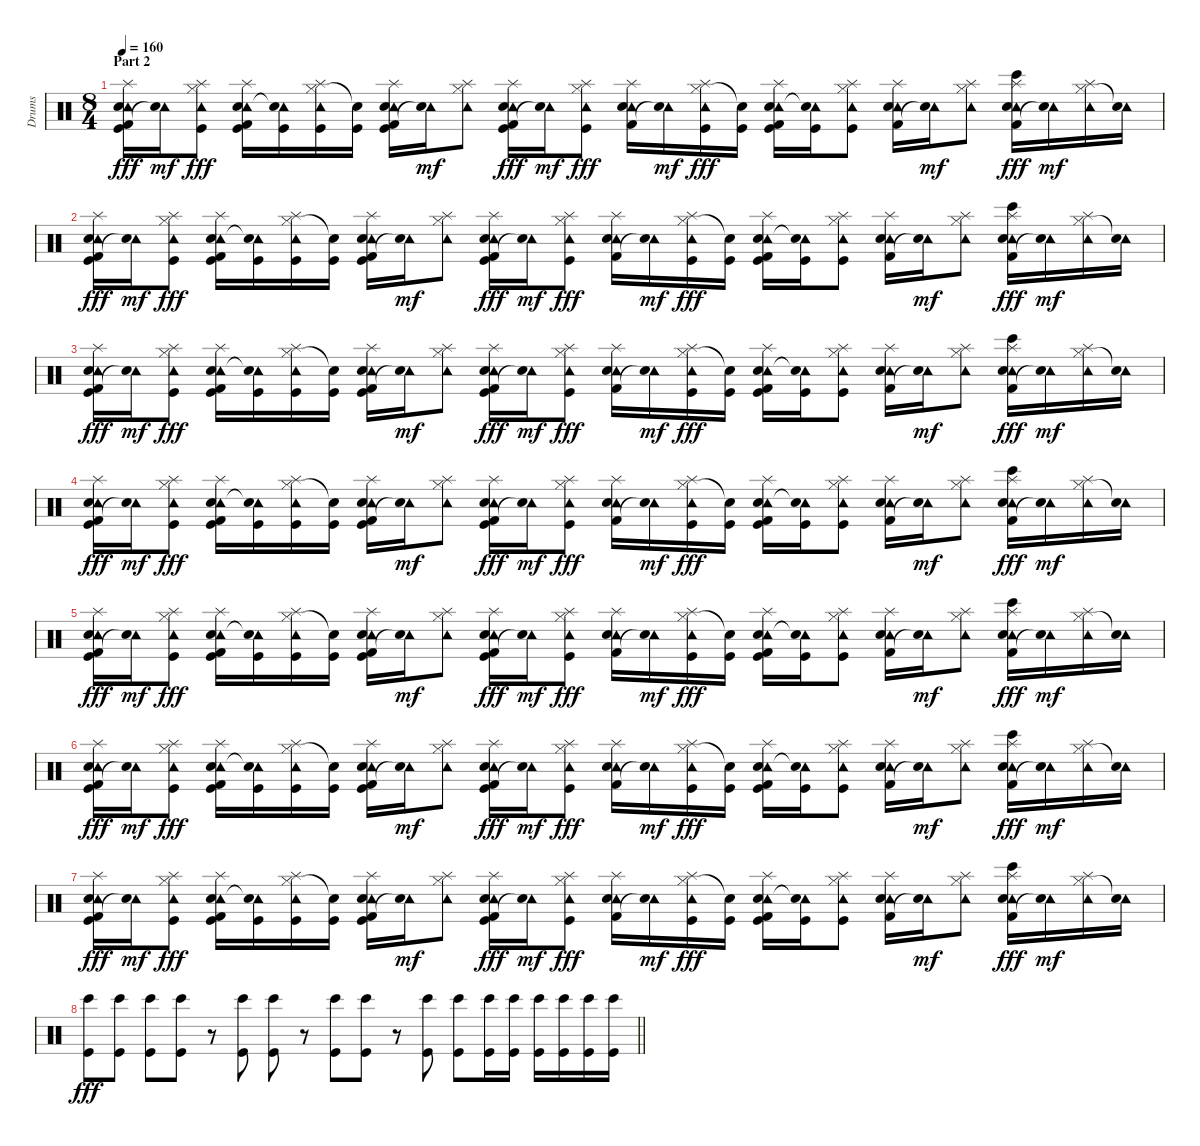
\track ("Drums" "Drums") {instrument percussion}
\staff {score}
\articulation defaults
\ts (8 4)
\section ("" "Part 2")
\tempo 160
\clef neutral
\ks c
("Tambourine (hit)" "Kick (hit) 2" "Hand Clap (hit)" "Splash (hit)" "Kick (hit)").16{dy fff} ("Tambourine (hit)" "Snare (hit)"{t}).16{dy mf} ("Tambourine (hit)" "Hi-Hat (closed)" "Splash (hit)" "Kick (hit)").8{dy fff} ("Tambourine (hit)" "Kick (hit) 2" "Hand Clap (hit)" "Kick (hit)" "Splash (hit)").16 ("Tambourine (hit)" "Kick (hit)" "Snare (hit)"{t}).16 ("Tambourine (hit)" "Hi-Hat (closed)" "Splash (hit)" "Kick (hit)").16 ("Kick (hit)" "Snare (hit)"{t}).16 ("Tambourine (hit)" "Kick (hit) 2" "Hand Clap (hit)" "Kick (hit)" "Splash (hit)").16 ("Tambourine (hit)" "Snare (hit)"{t}).16{dy mf} ("Tambourine (hit)" "Hi-Hat (closed)" "Splash (hit)").8 ("Tambourine (hit)" "Kick (hit) 2" "Hand Clap (hit)" "Kick (hit)" "Splash (hit)").16{dy fff} ("Tambourine (hit)" "Snare (hit)"{t}).16{dy mf} ("Tambourine (hit)" "Hi-Hat (closed)" "Splash (hit)" "Kick (hit)").8{dy fff} ("Tambourine (hit)" "Kick (hit) 2" "Hand Clap (hit)" "Splash (hit)").16 ("Tambourine (hit)" "Snare (hit)"{t}).16{dy mf} ("Tambourine (hit)" "Hi-Hat (closed)" "Splash (hit)" "Kick (hit)").16{dy fff} ("Kick (hit)" "Snare (hit)"{t}).16 ("Tambourine (hit)" "Kick (hit) 2" "Hand Clap (hit)" "Kick (hit)" "Splash (hit)").16 ("Tambourine (hit)" "Kick (hit)" "Snare (hit)"{t}).16 ("Tambourine (hit)" "Hi-Hat (closed)" "Splash (hit)" "Kick (hit)").8 ("Tambourine (hit)" "Kick (hit) 2" "Hand Clap (hit)" "Splash (hit)").16 ("Tambourine (hit)" "Snare (hit)"{t}).16{dy mf} ("Tambourine (hit)" "Hi-Hat (closed)" "Splash (hit)").8 ("Tambourine (hit)" "Kick (hit) 2" "Hand Clap (hit)" "Bongo High (hit)" "Splash (hit)").16{dy fff} ("Tambourine (hit)" "Snare (hit)"{t}).16{dy mf} ("Tambourine (hit)" "Hi-Hat (closed)" "Splash (hit)").16 ("Tambourine (hit)" "Snare (hit)"{t}).16 |
("Tambourine (hit)" "Kick (hit) 2" "Hand Clap (hit)" "Splash (hit)" "Kick (hit)").16{dy fff} ("Tambourine (hit)" "Snare (hit)"{t}).16{dy mf} ("Tambourine (hit)" "Hi-Hat (closed)" "Splash (hit)" "Kick (hit)").8{dy fff} ("Tambourine (hit)" "Kick (hit) 2" "Hand Clap (hit)" "Kick (hit)" "Splash (hit)").16 ("Tambourine (hit)" "Kick (hit)" "Snare (hit)"{t}).16 ("Tambourine (hit)" "Hi-Hat (closed)" "Splash (hit)" "Kick (hit)").16 ("Kick (hit)" "Snare (hit)"{t}).16 ("Tambourine (hit)" "Kick (hit) 2" "Hand Clap (hit)" "Kick (hit)" "Splash (hit)").16 ("Tambourine (hit)" "Snare (hit)"{t}).16{dy mf} ("Tambourine (hit)" "Hi-Hat (closed)" "Splash (hit)").8 ("Tambourine (hit)" "Kick (hit) 2" "Hand Clap (hit)" "Kick (hit)" "Splash (hit)").16{dy fff} ("Tambourine (hit)" "Snare (hit)"{t}).16{dy mf} ("Tambourine (hit)" "Hi-Hat (closed)" "Splash (hit)" "Kick (hit)").8{dy fff} ("Tambourine (hit)" "Kick (hit) 2" "Hand Clap (hit)" "Splash (hit)").16 ("Tambourine (hit)" "Snare (hit)"{t}).16{dy mf} ("Tambourine (hit)" "Hi-Hat (closed)" "Splash (hit)" "Kick (hit)").16{dy fff} ("Kick (hit)" "Snare (hit)"{t}).16 ("Tambourine (hit)" "Kick (hit) 2" "Hand Clap (hit)" "Kick (hit)" "Splash (hit)").16 ("Tambourine (hit)" "Kick (hit)" "Snare (hit)"{t}).16 ("Tambourine (hit)" "Hi-Hat (closed)" "Splash (hit)" "Kick (hit)").8 ("Tambourine (hit)" "Kick (hit) 2" "Hand Clap (hit)" "Splash (hit)").16 ("Tambourine (hit)" "Snare (hit)"{t}).16{dy mf} ("Tambourine (hit)" "Hi-Hat (closed)" "Splash (hit)").8 ("Tambourine (hit)" "Kick (hit) 2" "Hand Clap (hit)" "Bongo High (hit)" "Splash (hit)").16{dy fff} ("Tambourine (hit)" "Snare (hit)"{t}).16{dy mf} ("Tambourine (hit)" "Hi-Hat (closed)" "Splash (hit)").16 ("Tambourine (hit)" "Snare (hit)"{t}).16 |
("Tambourine (hit)" "Kick (hit) 2" "Hand Clap (hit)" "Splash (hit)" "Kick (hit)").16{dy fff} ("Tambourine (hit)" "Snare (hit)"{t}).16{dy mf} ("Tambourine (hit)" "Hi-Hat (closed)" "Splash (hit)" "Kick (hit)").8{dy fff} ("Tambourine (hit)" "Kick (hit) 2" "Hand Clap (hit)" "Kick (hit)" "Splash (hit)").16 ("Tambourine (hit)" "Kick (hit)" "Snare (hit)"{t}).16 ("Tambourine (hit)" "Hi-Hat (closed)" "Splash (hit)" "Kick (hit)").16 ("Kick (hit)" "Snare (hit)"{t}).16 ("Tambourine (hit)" "Kick (hit) 2" "Hand Clap (hit)" "Kick (hit)" "Splash (hit)").16 ("Tambourine (hit)" "Snare (hit)"{t}).16{dy mf} ("Tambourine (hit)" "Hi-Hat (closed)" "Splash (hit)").8 ("Tambourine (hit)" "Kick (hit) 2" "Hand Clap (hit)" "Kick (hit)" "Splash (hit)").16{dy fff} ("Tambourine (hit)" "Snare (hit)"{t}).16{dy mf} ("Tambourine (hit)" "Hi-Hat (closed)" "Splash (hit)" "Kick (hit)").8{dy fff} ("Tambourine (hit)" "Kick (hit) 2" "Hand Clap (hit)" "Splash (hit)").16 ("Tambourine (hit)" "Snare (hit)"{t}).16{dy mf} ("Tambourine (hit)" "Hi-Hat (closed)" "Splash (hit)" "Kick (hit)").16{dy fff} ("Kick (hit)" "Snare (hit)"{t}).16 ("Tambourine (hit)" "Kick (hit) 2" "Hand Clap (hit)" "Kick (hit)" "Splash (hit)").16 ("Tambourine (hit)" "Kick (hit)" "Snare (hit)"{t}).16 ("Tambourine (hit)" "Hi-Hat (closed)" "Splash (hit)" "Kick (hit)").8 ("Tambourine (hit)" "Kick (hit) 2" "Hand Clap (hit)" "Splash (hit)").16 ("Tambourine (hit)" "Snare (hit)"{t}).16{dy mf} ("Tambourine (hit)" "Hi-Hat (closed)" "Splash (hit)").8 ("Tambourine (hit)" "Kick (hit) 2" "Hand Clap (hit)" "Bongo High (hit)" "Splash (hit)").16{dy fff} ("Tambourine (hit)" "Snare (hit)"{t}).16{dy mf} ("Tambourine (hit)" "Hi-Hat (closed)" "Splash (hit)").16 ("Tambourine (hit)" "Snare (hit)"{t}).16 |
("Tambourine (hit)" "Kick (hit) 2" "Hand Clap (hit)" "Splash (hit)" "Kick (hit)").16{dy fff} ("Tambourine (hit)" "Snare (hit)"{t}).16{dy mf} ("Tambourine (hit)" "Hi-Hat (closed)" "Splash (hit)" "Kick (hit)").8{dy fff} ("Tambourine (hit)" "Kick (hit) 2" "Hand Clap (hit)" "Kick (hit)" "Splash (hit)").16 ("Tambourine (hit)" "Kick (hit)" "Snare (hit)"{t}).16 ("Tambourine (hit)" "Hi-Hat (closed)" "Splash (hit)" "Kick (hit)").16 ("Kick (hit)" "Snare (hit)"{t}).16 ("Tambourine (hit)" "Kick (hit) 2" "Hand Clap (hit)" "Kick (hit)" "Splash (hit)").16 ("Tambourine (hit)" "Snare (hit)"{t}).16{dy mf} ("Tambourine (hit)" "Hi-Hat (closed)" "Splash (hit)").8 ("Tambourine (hit)" "Kick (hit) 2" "Hand Clap (hit)" "Kick (hit)" "Splash (hit)").16{dy fff} ("Tambourine (hit)" "Snare (hit)"{t}).16{dy mf} ("Tambourine (hit)" "Hi-Hat (closed)" "Splash (hit)" "Kick (hit)").8{dy fff} ("Tambourine (hit)" "Kick (hit) 2" "Hand Clap (hit)" "Splash (hit)").16 ("Tambourine (hit)" "Snare (hit)"{t}).16{dy mf} ("Tambourine (hit)" "Hi-Hat (closed)" "Splash (hit)" "Kick (hit)").16{dy fff} ("Kick (hit)" "Snare (hit)"{t}).16 ("Tambourine (hit)" "Kick (hit) 2" "Hand Clap (hit)" "Kick (hit)" "Splash (hit)").16 ("Tambourine (hit)" "Kick (hit)" "Snare (hit)"{t}).16 ("Tambourine (hit)" "Hi-Hat (closed)" "Splash (hit)" "Kick (hit)").8 ("Tambourine (hit)" "Kick (hit) 2" "Hand Clap (hit)" "Splash (hit)").16 ("Tambourine (hit)" "Snare (hit)"{t}).16{dy mf} ("Tambourine (hit)" "Hi-Hat (closed)" "Splash (hit)").8 ("Tambourine (hit)" "Kick (hit) 2" "Hand Clap (hit)" "Bongo High (hit)" "Splash (hit)").16{dy fff} ("Tambourine (hit)" "Snare (hit)"{t}).16{dy mf} ("Tambourine (hit)" "Hi-Hat (closed)" "Splash (hit)").16 ("Tambourine (hit)" "Snare (hit)"{t}).16 |
("Tambourine (hit)" "Kick (hit) 2" "Hand Clap (hit)" "Splash (hit)" "Kick (hit)").16{dy fff} ("Tambourine (hit)" "Snare (hit)"{t}).16{dy mf} ("Tambourine (hit)" "Hi-Hat (closed)" "Splash (hit)" "Kick (hit)").8{dy fff} ("Tambourine (hit)" "Kick (hit) 2" "Hand Clap (hit)" "Kick (hit)" "Splash (hit)").16 ("Tambourine (hit)" "Kick (hit)" "Snare (hit)"{t}).16 ("Tambourine (hit)" "Hi-Hat (closed)" "Splash (hit)" "Kick (hit)").16 ("Kick (hit)" "Snare (hit)"{t}).16 ("Tambourine (hit)" "Kick (hit) 2" "Hand Clap (hit)" "Kick (hit)" "Splash (hit)").16 ("Tambourine (hit)" "Snare (hit)"{t}).16{dy mf} ("Tambourine (hit)" "Hi-Hat (closed)" "Splash (hit)").8 ("Tambourine (hit)" "Kick (hit) 2" "Hand Clap (hit)" "Kick (hit)" "Splash (hit)").16{dy fff} ("Tambourine (hit)" "Snare (hit)"{t}).16{dy mf} ("Tambourine (hit)" "Hi-Hat (closed)" "Splash (hit)" "Kick (hit)").8{dy fff} ("Tambourine (hit)" "Kick (hit) 2" "Hand Clap (hit)" "Splash (hit)").16 ("Tambourine (hit)" "Snare (hit)"{t}).16{dy mf} ("Tambourine (hit)" "Hi-Hat (closed)" "Splash (hit)" "Kick (hit)").16{dy fff} ("Kick (hit)" "Snare (hit)"{t}).16 ("Tambourine (hit)" "Kick (hit) 2" "Hand Clap (hit)" "Kick (hit)" "Splash (hit)").16 ("Tambourine (hit)" "Kick (hit)" "Snare (hit)"{t}).16 ("Tambourine (hit)" "Hi-Hat (closed)" "Splash (hit)" "Kick (hit)").8 ("Tambourine (hit)" "Kick (hit) 2" "Hand Clap (hit)" "Splash (hit)").16 ("Tambourine (hit)" "Snare (hit)"{t}).16{dy mf} ("Tambourine (hit)" "Hi-Hat (closed)" "Splash (hit)").8 ("Tambourine (hit)" "Kick (hit) 2" "Hand Clap (hit)" "Bongo High (hit)" "Splash (hit)").16{dy fff} ("Tambourine (hit)" "Snare (hit)"{t}).16{dy mf} ("Tambourine (hit)" "Hi-Hat (closed)" "Splash (hit)").16 ("Tambourine (hit)" "Snare (hit)"{t}).16 |
("Tambourine (hit)" "Kick (hit) 2" "Hand Clap (hit)" "Splash (hit)" "Kick (hit)").16{dy fff} ("Tambourine (hit)" "Snare (hit)"{t}).16{dy mf} ("Tambourine (hit)" "Hi-Hat (closed)" "Splash (hit)" "Kick (hit)").8{dy fff} ("Tambourine (hit)" "Kick (hit) 2" "Hand Clap (hit)" "Kick (hit)" "Splash (hit)").16 ("Tambourine (hit)" "Kick (hit)" "Snare (hit)"{t}).16 ("Tambourine (hit)" "Hi-Hat (closed)" "Splash (hit)" "Kick (hit)").16 ("Kick (hit)" "Snare (hit)"{t}).16 ("Tambourine (hit)" "Kick (hit) 2" "Hand Clap (hit)" "Kick (hit)" "Splash (hit)").16 ("Tambourine (hit)" "Snare (hit)"{t}).16{dy mf} ("Tambourine (hit)" "Hi-Hat (closed)" "Splash (hit)").8 ("Tambourine (hit)" "Kick (hit) 2" "Hand Clap (hit)" "Kick (hit)" "Splash (hit)").16{dy fff} ("Tambourine (hit)" "Snare (hit)"{t}).16{dy mf} ("Tambourine (hit)" "Hi-Hat (closed)" "Splash (hit)" "Kick (hit)").8{dy fff} ("Tambourine (hit)" "Kick (hit) 2" "Hand Clap (hit)" "Splash (hit)").16 ("Tambourine (hit)" "Snare (hit)"{t}).16{dy mf} ("Tambourine (hit)" "Hi-Hat (closed)" "Splash (hit)" "Kick (hit)").16{dy fff} ("Kick (hit)" "Snare (hit)"{t}).16 ("Tambourine (hit)" "Kick (hit) 2" "Hand Clap (hit)" "Kick (hit)" "Splash (hit)").16 ("Tambourine (hit)" "Kick (hit)" "Snare (hit)"{t}).16 ("Tambourine (hit)" "Hi-Hat (closed)" "Splash (hit)" "Kick (hit)").8 ("Tambourine (hit)" "Kick (hit) 2" "Hand Clap (hit)" "Splash (hit)").16 ("Tambourine (hit)" "Snare (hit)"{t}).16{dy mf} ("Tambourine (hit)" "Hi-Hat (closed)" "Splash (hit)").8 ("Tambourine (hit)" "Kick (hit) 2" "Hand Clap (hit)" "Bongo High (hit)" "Splash (hit)").16{dy fff} ("Tambourine (hit)" "Snare (hit)"{t}).16{dy mf} ("Tambourine (hit)" "Hi-Hat (closed)" "Splash (hit)").16 ("Tambourine (hit)" "Snare (hit)"{t}).16 |
("Tambourine (hit)" "Kick (hit) 2" "Hand Clap (hit)" "Splash (hit)" "Kick (hit)").16{dy fff} ("Tambourine (hit)" "Snare (hit)"{t}).16{dy mf} ("Tambourine (hit)" "Hi-Hat (closed)" "Splash (hit)" "Kick (hit)").8{dy fff} ("Tambourine (hit)" "Kick (hit) 2" "Hand Clap (hit)" "Kick (hit)" "Splash (hit)").16 ("Tambourine (hit)" "Kick (hit)" "Snare (hit)"{t}).16 ("Tambourine (hit)" "Hi-Hat (closed)" "Splash (hit)" "Kick (hit)").16 ("Kick (hit)" "Snare (hit)"{t}).16 ("Tambourine (hit)" "Kick (hit) 2" "Hand Clap (hit)" "Kick (hit)" "Splash (hit)").16 ("Tambourine (hit)" "Snare (hit)"{t}).16{dy mf} ("Tambourine (hit)" "Hi-Hat (closed)" "Splash (hit)").8 ("Tambourine (hit)" "Kick (hit) 2" "Hand Clap (hit)" "Kick (hit)" "Splash (hit)").16{dy fff} ("Tambourine (hit)" "Snare (hit)"{t}).16{dy mf} ("Tambourine (hit)" "Hi-Hat (closed)" "Splash (hit)" "Kick (hit)").8{dy fff} ("Tambourine (hit)" "Kick (hit) 2" "Hand Clap (hit)" "Splash (hit)").16 ("Tambourine (hit)" "Snare (hit)"{t}).16{dy mf} ("Tambourine (hit)" "Hi-Hat (closed)" "Splash (hit)" "Kick (hit)").16{dy fff} ("Kick (hit)" "Snare (hit)"{t}).16 ("Tambourine (hit)" "Kick (hit) 2" "Hand Clap (hit)" "Kick (hit)" "Splash (hit)").16 ("Tambourine (hit)" "Kick (hit)" "Snare (hit)"{t}).16 ("Tambourine (hit)" "Hi-Hat (closed)" "Splash (hit)" "Kick (hit)").8 ("Tambourine (hit)" "Kick (hit) 2" "Hand Clap (hit)" "Splash (hit)").16 ("Tambourine (hit)" "Snare (hit)"{t}).16{dy mf} ("Tambourine (hit)" "Hi-Hat (closed)" "Splash (hit)").8 ("Tambourine (hit)" "Kick (hit) 2" "Hand Clap (hit)" "Bongo High (hit)" "Splash (hit)").16{dy fff} ("Tambourine (hit)" "Snare (hit)"{t}).16{dy mf} ("Tambourine (hit)" "Hi-Hat (closed)" "Splash (hit)").16 ("Tambourine (hit)" "Snare (hit)"{t}).16 |
\barLineRight lightlight
("Kick (hit)" "Bongo High (hit)").8{dy fff} ("Kick (hit)" "Bongo High (hit)").8 ("Kick (hit)" "Bongo High (hit)").8 ("Kick (hit)" "Bongo High (hit)").8 r.8 ("Kick (hit)" "Bongo High (hit)").8 ("Kick (hit)" "Bongo High (hit)").8 r.8 ("Kick (hit)" "Bongo High (hit)").8 ("Kick (hit)" "Bongo High (hit)").8 r.8 ("Kick (hit)" "Bongo High (hit)").8 ("Kick (hit)" "Bongo High (hit)").8 ("Kick (hit)" "Bongo High (hit)").16 ("Kick (hit)" "Bongo High (hit)").16 ("Kick (hit)" "Bongo High (hit)").16 ("Kick (hit)" "Bongo High (hit)").16 ("Kick (hit)" "Bongo High (hit)").16 ("Kick (hit)" "Bongo High (hit)").16
